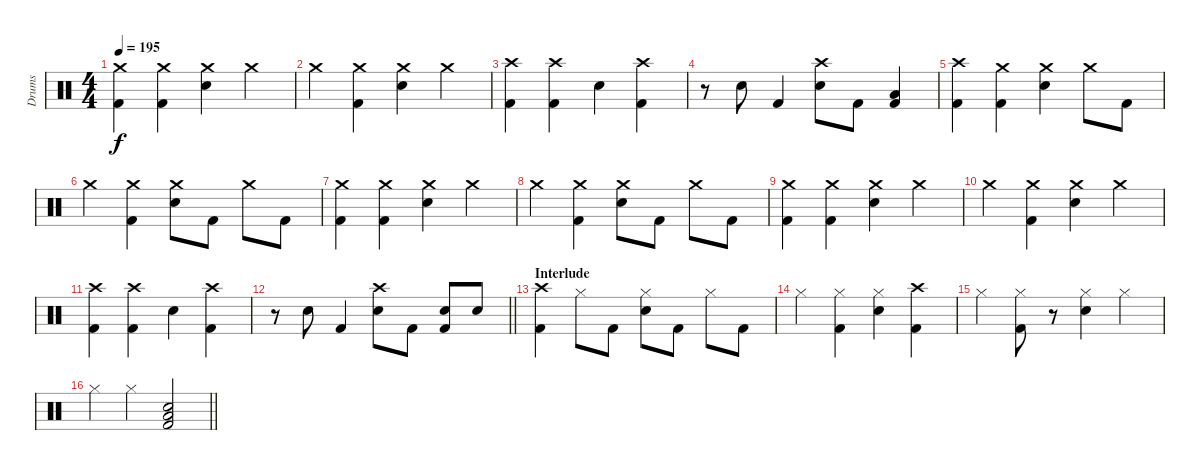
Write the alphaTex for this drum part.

\track ("Drums" "Drums") {instrument percussion}
\staff {score}
\articulation defaults
\ts (4 4)
\tempo 195
\clef neutral
\ks c
("Crash medium (hit)" "Kick (hit) 2").4{dy f} ("Crash medium (hit)" "Kick (hit) 2").4 ("Crash medium (hit)" "Snare (hit) 2").4 "Crash medium (hit)".4 |
"Crash medium (hit)".4 ("Crash medium (hit)" "Kick (hit) 2").4 ("Crash medium (hit)" "Snare (hit) 2").4 "Crash medium (hit)".4 |
("Crash high (hit)" "Kick (hit) 2").4 ("Crash high (hit)" "Kick (hit) 2").4 "Snare (hit) 2".4 ("Crash high (hit)" "Kick (hit) 2").4 |
r.8 "Snare (hit) 2".8 "Kick (hit) 2".4 ("Crash high (hit)" "Snare (hit) 2").8 "Kick (hit) 2".8 ("Low Floor Tom (hit)" "Kick (hit) 2").4 |
("Crash high (hit)" "Kick (hit) 2").4 ("Crash medium (hit)" "Kick (hit) 2").4 ("Crash medium (hit)" "Snare (hit) 2").4 "Crash medium (hit)".8 "Kick (hit) 2".8 |
"Crash medium (hit)".4 ("Crash medium (hit)" "Kick (hit) 2").4 ("Crash medium (hit)" "Snare (hit) 2").8 "Kick (hit) 2".8 "Crash medium (hit)".8 "Kick (hit) 2".8 |
("Crash medium (hit)" "Kick (hit) 2").4 ("Crash medium (hit)" "Kick (hit) 2").4 ("Crash medium (hit)" "Snare (hit) 2").4 "Crash medium (hit)".4 |
"Crash medium (hit)".4 ("Crash medium (hit)" "Kick (hit) 2").4 ("Crash medium (hit)" "Snare (hit) 2").8 "Kick (hit) 2".8 "Crash medium (hit)".8 "Kick (hit) 2".8 |
("Crash medium (hit)" "Kick (hit) 2").4 ("Crash medium (hit)" "Kick (hit) 2").4 ("Crash medium (hit)" "Snare (hit) 2").4 "Crash medium (hit)".4 |
"Crash medium (hit)".4 ("Crash medium (hit)" "Kick (hit) 2").4 ("Crash medium (hit)" "Snare (hit) 2").4 "Crash medium (hit)".4 |
("Crash high (hit)" "Kick (hit) 2").4 ("Crash high (hit)" "Kick (hit) 2").4 "Snare (hit) 2".4 ("Crash high (hit)" "Kick (hit) 2").4 |
\barLineRight lightlight
r.8 "Snare (hit) 2".8 "Kick (hit) 2".4 ("Crash high (hit)" "Snare (hit) 2").8 "Kick (hit) 2".8 ("Snare (hit) 2" "Kick (hit) 2").8 "Snare (hit) 2".8 |
\section ("" "Interlude")
("Crash high (hit)" "Kick (hit) 2").4 "Hi-Hat (closed)".8 "Kick (hit) 2".8 ("Hi-Hat (closed)" "Snare (hit) 2").8 "Kick (hit) 2".8 "Hi-Hat (closed)".8 "Kick (hit) 2".8 |
"Hi-Hat (closed)".4 ("Hi-Hat (closed)" "Kick (hit) 2").4 ("Hi-Hat (closed)" "Snare (hit) 2").4 ("Crash high (hit)" "Kick (hit) 2").4 |
"Hi-Hat (closed)".4 ("Hi-Hat (closed)" "Kick (hit) 2").8 r.8 ("Hi-Hat (closed)" "Snare (hit) 2").4 "Hi-Hat (closed)".4 |
\barLineRight lightlight "Hi-Hat (closed)".4 "Hi-Hat (closed)".4
("Kick (hit) 2" "Snare (hit) 2" "Low Floor Tom (hit)").2
